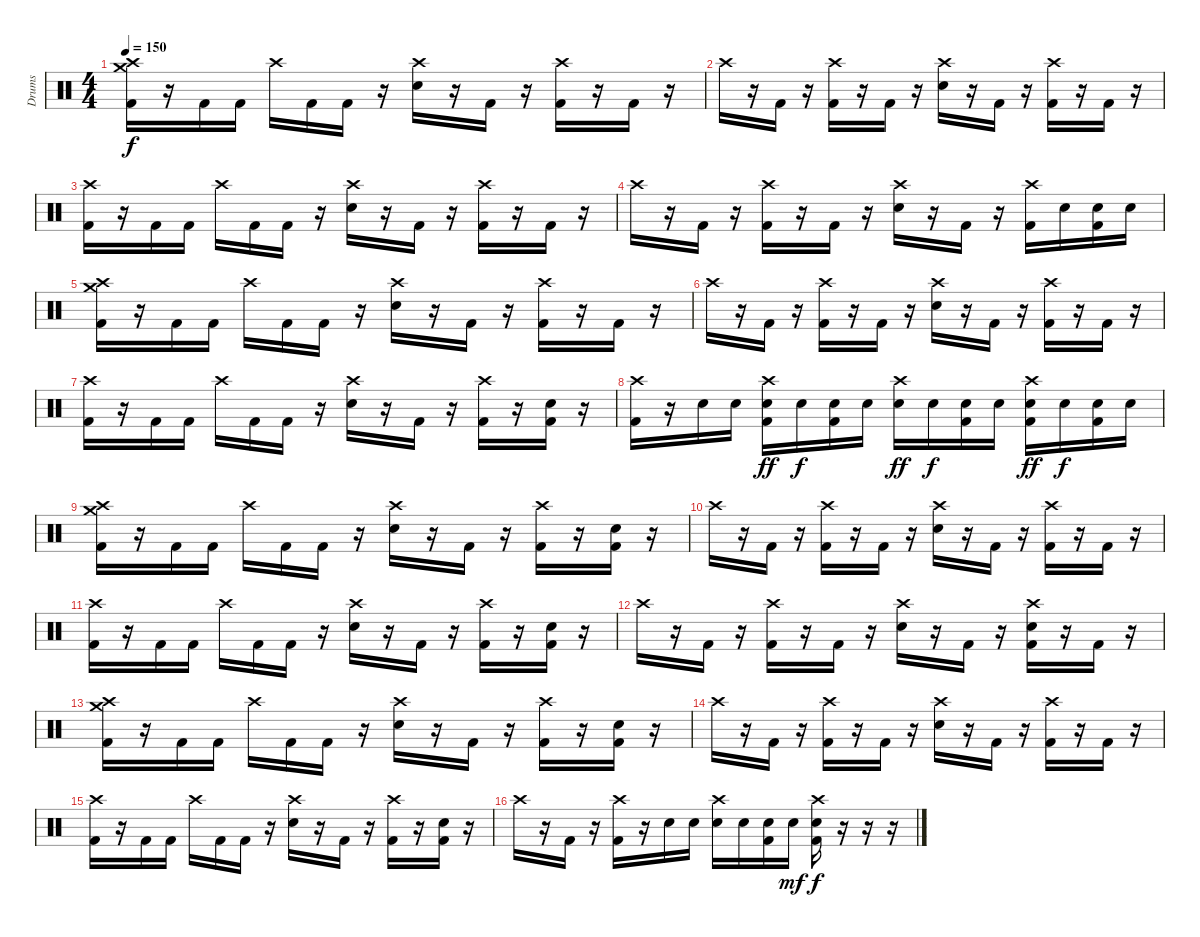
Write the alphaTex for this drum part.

\track ("Drums" "Drums") {instrument percussion}
\staff {score}
\articulation defaults
\ts (4 4)
\tempo 150
\clef neutral
\ks c
("Crash medium (hit)" "Crash high (hit)" "Kick (hit) 2").16{dy f} r.16 "Kick (hit) 2".16 "Kick (hit) 2".16 "Crash high (hit)".16 "Kick (hit) 2".16 "Kick (hit) 2".16 r.16 ("Crash high (hit)" "Electric Snare (hit)").16 r.16 "Kick (hit) 2".16 r.16 ("Crash high (hit)" "Kick (hit) 2").16 r.16 "Kick (hit) 2".16 r.16 |
"Crash high (hit)".16 r.16 "Kick (hit) 2".16 r.16 ("Crash high (hit)" "Kick (hit) 2").16 r.16 "Kick (hit) 2".16 r.16 ("Crash high (hit)" "Electric Snare (hit)").16 r.16 "Kick (hit) 2".16 r.16 ("Crash high (hit)" "Kick (hit) 2").16 r.16 "Kick (hit) 2".16 r.16 |
("Crash high (hit)" "Kick (hit) 2").16 r.16 "Kick (hit) 2".16 "Kick (hit) 2".16 "Crash high (hit)".16 "Kick (hit) 2".16 "Kick (hit) 2".16 r.16 ("Crash high (hit)" "Electric Snare (hit)").16 r.16 "Kick (hit) 2".16 r.16 ("Crash high (hit)" "Kick (hit) 2").16 r.16 "Kick (hit) 2".16 r.16 |
"Crash high (hit)".16 r.16 "Kick (hit) 2".16 r.16 ("Crash high (hit)" "Kick (hit) 2").16 r.16 "Kick (hit) 2".16 r.16 ("Crash high (hit)" "Electric Snare (hit)").16 r.16 "Kick (hit) 2".16 r.16 ("Crash high (hit)" "Kick (hit) 2").16 "Electric Snare (hit)".16 ("Electric Snare (hit)" "Kick (hit) 2").16 "Electric Snare (hit)".16 |
("Crash medium (hit)" "Crash high (hit)" "Kick (hit) 2").16 r.16 "Kick (hit) 2".16 "Kick (hit) 2".16 "Crash high (hit)".16 "Kick (hit) 2".16 "Kick (hit) 2".16 r.16 ("Crash high (hit)" "Electric Snare (hit)").16 r.16 "Kick (hit) 2".16 r.16 ("Crash high (hit)" "Kick (hit) 2").16 r.16 "Kick (hit) 2".16 r.16 |
"Crash high (hit)".16 r.16 "Kick (hit) 2".16 r.16 ("Crash high (hit)" "Kick (hit) 2").16 r.16 "Kick (hit) 2".16 r.16 ("Crash high (hit)" "Electric Snare (hit)").16 r.16 "Kick (hit) 2".16 r.16 ("Crash high (hit)" "Kick (hit) 2").16 r.16 "Kick (hit) 2".16 r.16 |
("Crash high (hit)" "Kick (hit) 2").16 r.16 "Kick (hit) 2".16 "Kick (hit) 2".16 "Crash high (hit)".16 "Kick (hit) 2".16 "Kick (hit) 2".16 r.16 ("Crash high (hit)" "Electric Snare (hit)").16 r.16 "Kick (hit) 2".16 r.16 ("Crash high (hit)" "Kick (hit) 2").16 r.16 ("Electric Snare (hit)" "Kick (hit) 2").16 r.16 |
("Crash high (hit)" "Kick (hit) 2").16 r.16 "Electric Snare (hit)".16 "Electric Snare (hit)".16 ("Crash high (hit)" "Electric Snare (hit)" "Kick (hit) 2").16{dy ff} "Electric Snare (hit)".16{dy f} ("Electric Snare (hit)" "Kick (hit) 2").16 "Electric Snare (hit)".16 ("Crash high (hit)" "Electric Snare (hit)").16{dy ff} "Electric Snare (hit)".16{dy f} ("Electric Snare (hit)" "Kick (hit) 2").16 "Electric Snare (hit)".16 ("Crash high (hit)" "Electric Snare (hit)" "Kick (hit) 2").16{dy ff} "Electric Snare (hit)".16{dy f} ("Electric Snare (hit)" "Kick (hit) 2").16 "Electric Snare (hit)".16 |
("Crash medium (hit)" "Crash high (hit)" "Kick (hit) 2").16 r.16 "Kick (hit) 2".16 "Kick (hit) 2".16 "Crash high (hit)".16 "Kick (hit) 2".16 "Kick (hit) 2".16 r.16 ("Crash high (hit)" "Electric Snare (hit)").16 r.16 "Kick (hit) 2".16 r.16 ("Crash high (hit)" "Kick (hit) 2").16 r.16 ("Electric Snare (hit)" "Kick (hit) 2").16 r.16 |
"Crash high (hit)".16 r.16 "Kick (hit) 2".16 r.16 ("Crash high (hit)" "Kick (hit) 2").16 r.16 "Kick (hit) 2".16 r.16 ("Crash high (hit)" "Electric Snare (hit)").16 r.16 "Kick (hit) 2".16 r.16 ("Crash high (hit)" "Kick (hit) 2").16 r.16 "Kick (hit) 2".16 r.16 |
("Crash high (hit)" "Kick (hit) 2").16 r.16 "Kick (hit) 2".16 "Kick (hit) 2".16 "Crash high (hit)".16 "Kick (hit) 2".16 "Kick (hit) 2".16 r.16 ("Crash high (hit)" "Electric Snare (hit)").16 r.16 "Kick (hit) 2".16 r.16 ("Crash high (hit)" "Kick (hit) 2").16 r.16 ("Electric Snare (hit)" "Kick (hit) 2").16 r.16 |
"Crash high (hit)".16 r.16 "Kick (hit) 2".16 r.16 ("Crash high (hit)" "Kick (hit) 2").16 r.16 "Kick (hit) 2".16 r.16 ("Crash high (hit)" "Electric Snare (hit)").16 r.16 "Kick (hit) 2".16 r.16 ("Crash high (hit)" "Electric Snare (hit)" "Kick (hit) 2").16 r.16 "Kick (hit) 2".16 r.16 |
("Crash medium (hit)" "Crash high (hit)" "Kick (hit) 2").16 r.16 "Kick (hit) 2".16 "Kick (hit) 2".16 "Crash high (hit)".16 "Kick (hit) 2".16 "Kick (hit) 2".16 r.16 ("Crash high (hit)" "Electric Snare (hit)").16 r.16 "Kick (hit) 2".16 r.16 ("Crash high (hit)" "Kick (hit) 2").16 r.16 ("Electric Snare (hit)" "Kick (hit) 2").16 r.16 |
"Crash high (hit)".16 r.16 "Kick (hit) 2".16 r.16 ("Crash high (hit)" "Kick (hit) 2").16 r.16 "Kick (hit) 2".16 r.16 ("Crash high (hit)" "Electric Snare (hit)").16 r.16 "Kick (hit) 2".16 r.16 ("Crash high (hit)" "Kick (hit) 2").16 r.16 "Kick (hit) 2".16 r.16 |
("Crash high (hit)" "Kick (hit) 2").16 r.16 "Kick (hit) 2".16 "Kick (hit) 2".16 "Crash high (hit)".16 "Kick (hit) 2".16 "Kick (hit) 2".16 r.16 ("Crash high (hit)" "Electric Snare (hit)").16 r.16 "Kick (hit) 2".16 r.16 ("Crash high (hit)" "Kick (hit) 2").16 r.16 ("Electric Snare (hit)" "Kick (hit) 2").16 r.16 |
"Crash high (hit)".16 r.16 "Kick (hit) 2".16 r.16 ("Crash high (hit)" "Kick (hit) 2").16 r.16 "Electric Snare (hit)".16 "Electric Snare (hit)".16 ("Crash high (hit)" "Electric Snare (hit)").16 "Electric Snare (hit)".16 ("Electric Snare (hit)" "Kick (hit) 2").16 "Electric Snare (hit)".16{dy mf} ("Crash high (hit)" "Electric Snare (hit)" "Kick (hit) 2").16{dy f} r.16 r.16 r.16
